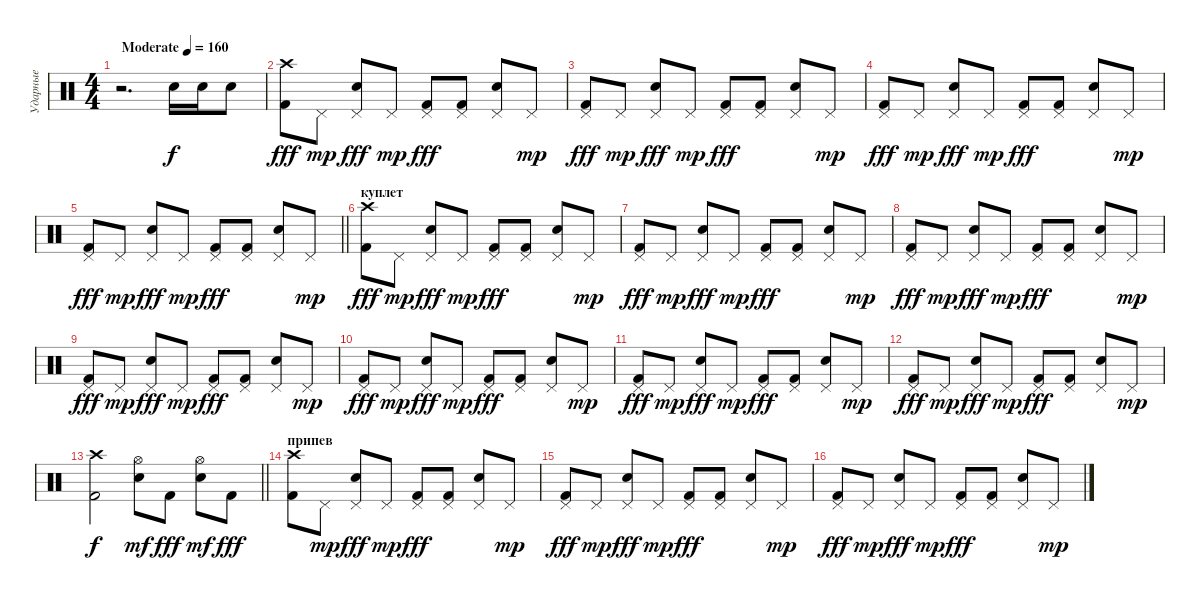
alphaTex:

\track ("Ударные" "Ударные") {instrument percussion}
\staff {score}
\articulation defaults
\ts (4 4)
\tempo (160 "Moderate")
\clef neutral
\ks c
r.2{d dy f} "Snare (hit) 2".16 "Snare (hit) 2".16 "Snare (hit) 2".8 |
("Crash high (hit)" "Kick (hit) 2").8{dy fff} "Pedal Hi-Hat (hit)".8{dy mp} ("Pedal Hi-Hat (hit)" "Electric Snare (hit)").8{dy fff} "Pedal Hi-Hat (hit)".8{dy mp} ("Pedal Hi-Hat (hit)" "Kick (hit) 2").8{dy fff} ("Pedal Hi-Hat (hit)" "Kick (hit) 2").8 ("Pedal Hi-Hat (hit)" "Electric Snare (hit)").8 "Pedal Hi-Hat (hit)".8{dy mp} |
("Pedal Hi-Hat (hit)" "Kick (hit) 2").8{dy fff} "Pedal Hi-Hat (hit)".8{dy mp} ("Pedal Hi-Hat (hit)" "Electric Snare (hit)").8{dy fff} "Pedal Hi-Hat (hit)".8{dy mp} ("Pedal Hi-Hat (hit)" "Kick (hit) 2").8{dy fff} ("Pedal Hi-Hat (hit)" "Kick (hit) 2").8 ("Pedal Hi-Hat (hit)" "Electric Snare (hit)").8 "Pedal Hi-Hat (hit)".8{dy mp} |
("Pedal Hi-Hat (hit)" "Kick (hit) 2").8{dy fff} "Pedal Hi-Hat (hit)".8{dy mp} ("Pedal Hi-Hat (hit)" "Electric Snare (hit)").8{dy fff} "Pedal Hi-Hat (hit)".8{dy mp} ("Pedal Hi-Hat (hit)" "Kick (hit) 2").8{dy fff} ("Pedal Hi-Hat (hit)" "Kick (hit) 2").8 ("Pedal Hi-Hat (hit)" "Electric Snare (hit)").8 "Pedal Hi-Hat (hit)".8{dy mp} |
\barLineRight lightlight
("Pedal Hi-Hat (hit)" "Kick (hit) 2").8{dy fff} "Pedal Hi-Hat (hit)".8{dy mp} ("Pedal Hi-Hat (hit)" "Electric Snare (hit)").8{dy fff} "Pedal Hi-Hat (hit)".8{dy mp} ("Pedal Hi-Hat (hit)" "Kick (hit) 2").8{dy fff} ("Pedal Hi-Hat (hit)" "Kick (hit) 2").8 ("Pedal Hi-Hat (hit)" "Electric Snare (hit)").8 "Pedal Hi-Hat (hit)".8{dy mp} |
\section ("" "куплет")
("Crash high (hit)" "Kick (hit) 2").8{dy fff} "Pedal Hi-Hat (hit)".8{dy mp} ("Pedal Hi-Hat (hit)" "Electric Snare (hit)").8{dy fff} "Pedal Hi-Hat (hit)".8{dy mp} ("Pedal Hi-Hat (hit)" "Kick (hit) 2").8{dy fff} ("Pedal Hi-Hat (hit)" "Kick (hit) 2").8 ("Pedal Hi-Hat (hit)" "Electric Snare (hit)").8 "Pedal Hi-Hat (hit)".8{dy mp} |
("Pedal Hi-Hat (hit)" "Kick (hit) 2").8{dy fff} "Pedal Hi-Hat (hit)".8{dy mp} ("Pedal Hi-Hat (hit)" "Electric Snare (hit)").8{dy fff} "Pedal Hi-Hat (hit)".8{dy mp} ("Pedal Hi-Hat (hit)" "Kick (hit) 2").8{dy fff} ("Pedal Hi-Hat (hit)" "Kick (hit) 2").8 ("Pedal Hi-Hat (hit)" "Electric Snare (hit)").8 "Pedal Hi-Hat (hit)".8{dy mp} |
("Pedal Hi-Hat (hit)" "Kick (hit) 2").8{dy fff} "Pedal Hi-Hat (hit)".8{dy mp} ("Pedal Hi-Hat (hit)" "Electric Snare (hit)").8{dy fff} "Pedal Hi-Hat (hit)".8{dy mp} ("Pedal Hi-Hat (hit)" "Kick (hit) 2").8{dy fff} ("Pedal Hi-Hat (hit)" "Kick (hit) 2").8 ("Pedal Hi-Hat (hit)" "Electric Snare (hit)").8 "Pedal Hi-Hat (hit)".8{dy mp} |
("Pedal Hi-Hat (hit)" "Kick (hit) 2").8{dy fff} "Pedal Hi-Hat (hit)".8{dy mp} ("Pedal Hi-Hat (hit)" "Electric Snare (hit)").8{dy fff} "Pedal Hi-Hat (hit)".8{dy mp} ("Pedal Hi-Hat (hit)" "Kick (hit) 2").8{dy fff} ("Pedal Hi-Hat (hit)" "Kick (hit) 2").8 ("Pedal Hi-Hat (hit)" "Electric Snare (hit)").8 "Pedal Hi-Hat (hit)".8{dy mp} |
("Pedal Hi-Hat (hit)" "Kick (hit) 2").8{dy fff} "Pedal Hi-Hat (hit)".8{dy mp} ("Pedal Hi-Hat (hit)" "Electric Snare (hit)").8{dy fff} "Pedal Hi-Hat (hit)".8{dy mp} ("Pedal Hi-Hat (hit)" "Kick (hit) 2").8{dy fff} ("Pedal Hi-Hat (hit)" "Kick (hit) 2").8 ("Pedal Hi-Hat (hit)" "Electric Snare (hit)").8 "Pedal Hi-Hat (hit)".8{dy mp} |
("Pedal Hi-Hat (hit)" "Kick (hit) 2").8{dy fff} "Pedal Hi-Hat (hit)".8{dy mp} ("Pedal Hi-Hat (hit)" "Electric Snare (hit)").8{dy fff} "Pedal Hi-Hat (hit)".8{dy mp} ("Pedal Hi-Hat (hit)" "Kick (hit) 2").8{dy fff} ("Pedal Hi-Hat (hit)" "Kick (hit) 2").8 ("Pedal Hi-Hat (hit)" "Electric Snare (hit)").8 "Pedal Hi-Hat (hit)".8{dy mp} |
("Pedal Hi-Hat (hit)" "Kick (hit) 2").8{dy fff} "Pedal Hi-Hat (hit)".8{dy mp} ("Pedal Hi-Hat (hit)" "Electric Snare (hit)").8{dy fff} "Pedal Hi-Hat (hit)".8{dy mp} ("Pedal Hi-Hat (hit)" "Kick (hit) 2").8{dy fff} ("Pedal Hi-Hat (hit)" "Kick (hit) 2").8 ("Pedal Hi-Hat (hit)" "Electric Snare (hit)").8 "Pedal Hi-Hat (hit)".8{dy mp} |
\barLineRight lightlight
("Kick (hit) 2" "Crash high (hit)").2{dy f} ("Snare (hit) 2" "Hi-Hat (open)").8{dy mf} "Kick (hit) 2".8{dy fff} ("Snare (hit) 2" "Hi-Hat (open)").8{dy mf} "Kick (hit) 2".8{dy fff} |
\section ("" "припев")
("Crash high (hit)" "Kick (hit) 2").8 "Pedal Hi-Hat (hit)".8{dy mp} ("Pedal Hi-Hat (hit)" "Electric Snare (hit)").8{dy fff} "Pedal Hi-Hat (hit)".8{dy mp} ("Pedal Hi-Hat (hit)" "Kick (hit) 2").8{dy fff} ("Pedal Hi-Hat (hit)" "Kick (hit) 2").8 ("Pedal Hi-Hat (hit)" "Electric Snare (hit)").8 "Pedal Hi-Hat (hit)".8{dy mp} |
("Pedal Hi-Hat (hit)" "Kick (hit) 2").8{dy fff} "Pedal Hi-Hat (hit)".8{dy mp} ("Pedal Hi-Hat (hit)" "Electric Snare (hit)").8{dy fff} "Pedal Hi-Hat (hit)".8{dy mp} ("Pedal Hi-Hat (hit)" "Kick (hit) 2").8{dy fff} ("Pedal Hi-Hat (hit)" "Kick (hit) 2").8 ("Pedal Hi-Hat (hit)" "Electric Snare (hit)").8 "Pedal Hi-Hat (hit)".8{dy mp} |
("Pedal Hi-Hat (hit)" "Kick (hit) 2").8{dy fff} "Pedal Hi-Hat (hit)".8{dy mp} ("Pedal Hi-Hat (hit)" "Electric Snare (hit)").8{dy fff} "Pedal Hi-Hat (hit)".8{dy mp} ("Pedal Hi-Hat (hit)" "Kick (hit) 2").8{dy fff} ("Pedal Hi-Hat (hit)" "Kick (hit) 2").8 ("Pedal Hi-Hat (hit)" "Electric Snare (hit)").8 "Pedal Hi-Hat (hit)".8{dy mp}
